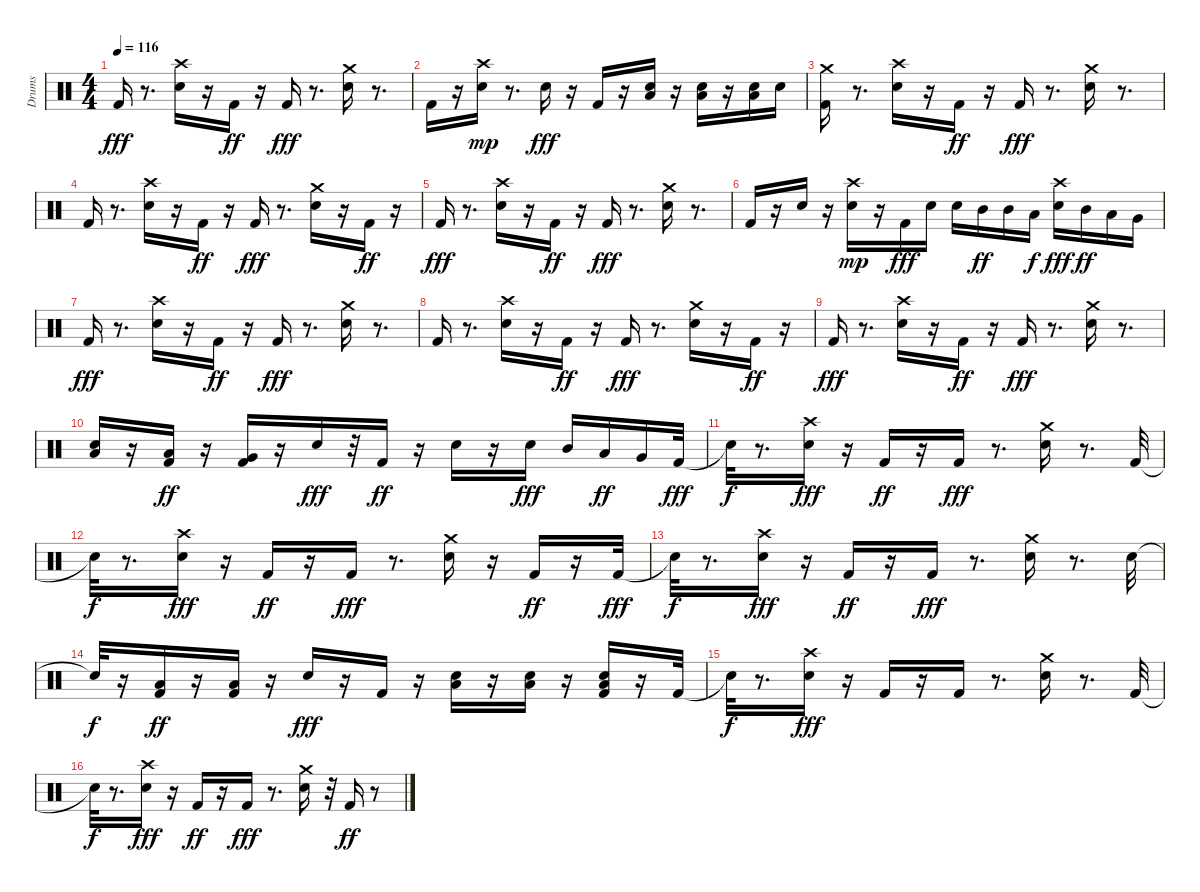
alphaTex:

\track ("Drums" "Drums") {instrument percussion}
\staff {score}
\articulation defaults
\ts (4 4)
\tempo 116
\clef neutral
\ks c "Kick (hit) 2".16{dy fff}
r.8{d} ("Crash high (hit)" "Snare (hit) 2").16 r.16 "Kick (hit) 2".16{dy ff} r.16 "Kick (hit) 2".16{dy fff} r.8{d} ("Crash medium (hit)" "Snare (hit) 2").16 r.8{d} |
"Kick (hit) 2".16 r.16 ("Snare (hit) 2" "Crash high (hit)").16{dy mp} r.8{d} "Snare (hit) 2".16{dy fff} r.16 "Kick (hit) 2".16 r.16 ("Low Tom (hit)" "Snare (hit) 2").16 r.16 ("Low Tom (hit)" "Snare (hit) 2").16 r.16 ("Low Tom (hit)" "Snare (hit) 2").16 "Snare (hit) 2".16 |
("Crash medium (hit)" "Kick (hit) 2").16 r.8{d} ("Crash high (hit)" "Snare (hit) 2").16 r.16 "Kick (hit) 2".16{dy ff} r.16 "Kick (hit) 2".16{dy fff} r.8{d} ("Crash medium (hit)" "Snare (hit) 2").16 r.8{d} |
"Kick (hit) 2".16 r.8{d} ("Crash high (hit)" "Snare (hit) 2").16 r.16 "Kick (hit) 2".16{dy ff} r.16 "Kick (hit) 2".16{dy fff} r.8{d} ("Crash medium (hit)" "Snare (hit) 2").16 r.16 "Kick (hit) 2".16{dy ff} r.16 |
"Kick (hit) 2".16{dy fff} r.8{d} ("Crash high (hit)" "Snare (hit) 2").16 r.16 "Kick (hit) 2".16{dy ff} r.16 "Kick (hit) 2".16{dy fff} r.8{d} ("Crash medium (hit)" "Snare (hit) 2").16 r.8{d} |
"Kick (hit) 2".16 r.16 "Snare (hit) 2".16 r.16 ("Snare (hit) 2" "Crash high (hit)").16{dy mp} r.16 "Kick (hit) 2".16{dy fff} "Snare (hit) 2".16 "Snare (hit) 2".16 "Mid Tom (hit)".16{dy ff} "Mid Tom (hit)".16 "Low Tom (hit)".16{dy f} ("Crash high (hit)" "Snare (hit) 2").16{dy fff} "Mid Tom (hit)".16{dy ff} "Low Tom (hit)".16 "Very Low Tom (hit)".16 |
"Kick (hit) 2".16{dy fff} r.8{d} ("Crash high (hit)" "Snare (hit) 2").16 r.16 "Kick (hit) 2".16{dy ff} r.16 "Kick (hit) 2".16{dy fff} r.8{d} ("Crash medium (hit)" "Snare (hit) 2").16 r.8{d} |
"Kick (hit) 2".16{volume 16} r.8{d} ("Crash high (hit)" "Snare (hit) 2").16{volume 16} r.16 "Kick (hit) 2".16{dy ff volume 15} r.16 "Kick (hit) 2".16{dy fff volume 15} r.8{d} ("Crash medium (hit)" "Snare (hit) 2").16{volume 15} r.16 "Kick (hit) 2".16{dy ff volume 14} r.16 |
"Kick (hit) 2".16{dy fff volume 14} r.8{d} ("Crash high (hit)" "Snare (hit) 2").16{volume 14} r.16 "Kick (hit) 2".16{dy ff volume 14} r.16 "Kick (hit) 2".16{dy fff volume 13} r.8{d} ("Crash medium (hit)" "Snare (hit) 2").16{volume 13} r.8{d} |
("Low Tom (hit)" "Snare (hit) 2").16{volume 12} r.16 ("Kick (hit) 2" "Low Tom (hit)").16{dy ff volume 12} r.16 ("Very Low Tom (hit)" "Kick (hit) 2").16{volume 12} r.16 "Snare (hit) 2".16{dy fff volume 12} r.32 "Kick (hit) 2".16{dy ff volume 12} r.16 "Snare (hit) 2".16{volume 11} r.16 "Snare (hit) 2".16{dy fff volume 11} "Mid Tom (hit)".16{volume 11} "Low Tom (hit)".16{dy ff volume 11} "Very Low Tom (hit)".16{volume 11} "Kick (hit) 2".32{dy fff volume 11} |
"Snare (hit)"{t}.32{dy f} r.8{d} ("Crash high (hit)" "Snare (hit) 2").16{dy fff volume 10} r.16 "Kick (hit) 2".16{dy ff volume 10} r.16 "Kick (hit) 2".16{dy fff volume 10} r.8{d} ("Crash medium (hit)" "Snare (hit) 2").16{volume 9} r.8{d} "Kick (hit) 2".32{volume 9} |
"Snare (hit)"{t}.32{dy f} r.8{d} ("Crash high (hit)" "Snare (hit) 2").16{dy fff volume 8} r.16 "Kick (hit) 2".16{dy ff volume 8} r.16 "Kick (hit) 2".16{dy fff volume 8} r.8{d} ("Crash medium (hit)" "Snare (hit) 2").16{volume 8} r.16 "Kick (hit) 2".16{dy ff volume 7} r.16 "Kick (hit) 2".32{dy fff volume 7} |
"Snare (hit)"{t}.32{dy f} r.8{d} ("Crash high (hit)" "Snare (hit) 2").16{dy fff volume 7} r.16 "Kick (hit) 2".16{dy ff volume 6} r.16 "Kick (hit) 2".16{dy fff volume 6} r.8{d} ("Crash medium (hit)" "Snare (hit) 2").16{volume 6} r.8{d} "Snare (hit) 2".32{volume 5} |
"Snare (hit)"{t}.32{dy f} r.16 ("Low Tom (hit)" "Kick (hit) 2").16{dy ff volume 5} r.16 ("Kick (hit) 2" "Low Tom (hit)").16{volume 5} r.16 "Snare (hit) 2".16{dy fff volume 5} r.16 "Kick (hit) 2".16{volume 4} r.16 ("Low Tom (hit)" "Snare (hit) 2").16{volume 4} r.16 ("Low Tom (hit)" "Snare (hit) 2").16{volume 4} r.16 ("Low Tom (hit)" "Snare (hit) 2" "Kick (hit) 2").16{volume 4} r.16 "Kick (hit) 2".32{volume 4} |
"Snare (hit)"{t}.32{dy f} r.8{d} ("Crash high (hit)" "Snare (hit) 2").16{dy fff volume 3} r.16 "Kick (hit) 2".16{volume 3} r.16 "Kick (hit) 2".16{volume 3} r.8{d} ("Crash medium (hit)" "Snare (hit) 2").16{volume 2} r.8{d} "Kick (hit) 2".32{volume 2} |
"Snare (hit)"{t}.32{dy f} r.8{d} ("Crash high (hit)" "Snare (hit) 2").16{dy fff volume 1} r.16 "Kick (hit) 2".16{dy ff volume 1} r.16 "Kick (hit) 2".16{dy fff volume 1} r.8{d} ("Crash medium (hit)" "Snare (hit) 2").16{volume 0} r.32 "Kick (hit) 2".16{dy ff volume 0} r.8
